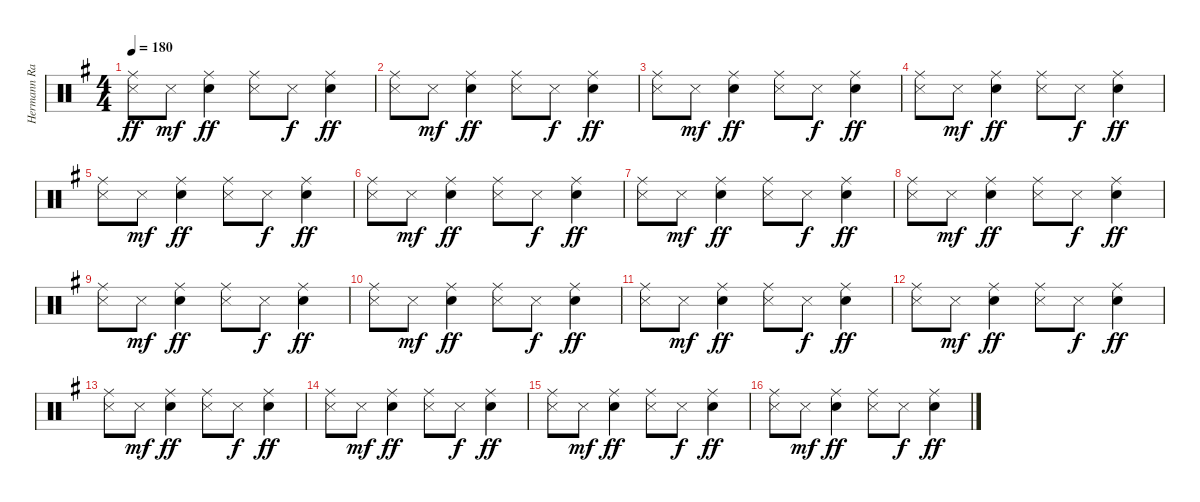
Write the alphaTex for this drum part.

\track ("Hermann Rarebel" "Hermann Ra") {instrument percussion}
\staff {score}
\articulation defaults
\ts (4 4)
\tempo 180
\clef neutral
\ks eminor
("Metronome (hit)" "Ride (middle)").8{dy ff} "Metronome (hit)".8{dy mf} ("Snare (hit) 2" "Ride (middle)").4{dy ff} ("Metronome (hit)" "Ride (middle)").8 "Metronome (hit)".8{dy f} ("Snare (hit) 2" "Ride (middle)").4{dy ff} |
("Metronome (hit)" "Ride (middle)").8 "Metronome (hit)".8{dy mf} ("Snare (hit) 2" "Ride (middle)").4{dy ff} ("Metronome (hit)" "Ride (middle)").8 "Metronome (hit)".8{dy f} ("Snare (hit) 2" "Ride (middle)").4{dy ff} |
("Metronome (hit)" "Ride (middle)").8 "Metronome (hit)".8{dy mf} ("Snare (hit) 2" "Ride (middle)").4{dy ff} ("Metronome (hit)" "Ride (middle)").8 "Metronome (hit)".8{dy f} ("Snare (hit) 2" "Ride (middle)").4{dy ff} |
("Metronome (hit)" "Ride (middle)").8 "Metronome (hit)".8{dy mf} ("Snare (hit) 2" "Ride (middle)").4{dy ff} ("Metronome (hit)" "Ride (middle)").8 "Metronome (hit)".8{dy f} ("Snare (hit) 2" "Ride (middle)").4{dy ff} |
("Metronome (hit)" "Ride (middle)").8 "Metronome (hit)".8{dy mf} ("Snare (hit) 2" "Ride (middle)").4{dy ff} ("Metronome (hit)" "Ride (middle)").8 "Metronome (hit)".8{dy f} ("Snare (hit) 2" "Ride (middle)").4{dy ff} |
("Metronome (hit)" "Ride (middle)").8 "Metronome (hit)".8{dy mf} ("Snare (hit) 2" "Ride (middle)").4{dy ff} ("Metronome (hit)" "Ride (middle)").8 "Metronome (hit)".8{dy f} ("Snare (hit) 2" "Ride (middle)").4{dy ff} |
("Metronome (hit)" "Ride (middle)").8 "Metronome (hit)".8{dy mf} ("Snare (hit) 2" "Ride (middle)").4{dy ff} ("Metronome (hit)" "Ride (middle)").8 "Metronome (hit)".8{dy f} ("Snare (hit) 2" "Ride (middle)").4{dy ff} |
("Metronome (hit)" "Ride (middle)").8 "Metronome (hit)".8{dy mf} ("Snare (hit) 2" "Ride (middle)").4{dy ff} ("Metronome (hit)" "Ride (middle)").8 "Metronome (hit)".8{dy f} ("Snare (hit) 2" "Ride (middle)").4{dy ff} |
("Metronome (hit)" "Ride (middle)").8 "Metronome (hit)".8{dy mf} ("Snare (hit) 2" "Ride (middle)").4{dy ff} ("Metronome (hit)" "Ride (middle)").8 "Metronome (hit)".8{dy f} ("Snare (hit) 2" "Ride (middle)").4{dy ff} |
("Metronome (hit)" "Ride (middle)").8 "Metronome (hit)".8{dy mf} ("Snare (hit) 2" "Ride (middle)").4{dy ff} ("Metronome (hit)" "Ride (middle)").8 "Metronome (hit)".8{dy f} ("Snare (hit) 2" "Ride (middle)").4{dy ff} |
("Metronome (hit)" "Ride (middle)").8 "Metronome (hit)".8{dy mf} ("Snare (hit) 2" "Ride (middle)").4{dy ff} ("Metronome (hit)" "Ride (middle)").8 "Metronome (hit)".8{dy f} ("Snare (hit) 2" "Ride (middle)").4{dy ff} |
("Metronome (hit)" "Ride (middle)").8 "Metronome (hit)".8{dy mf} ("Snare (hit) 2" "Ride (middle)").4{dy ff} ("Metronome (hit)" "Ride (middle)").8 "Metronome (hit)".8{dy f} ("Snare (hit) 2" "Ride (middle)").4{dy ff} |
("Metronome (hit)" "Ride (middle)").8 "Metronome (hit)".8{dy mf} ("Snare (hit) 2" "Ride (middle)").4{dy ff} ("Metronome (hit)" "Ride (middle)").8 "Metronome (hit)".8{dy f} ("Snare (hit) 2" "Ride (middle)").4{dy ff} |
("Metronome (hit)" "Ride (middle)").8 "Metronome (hit)".8{dy mf} ("Snare (hit) 2" "Ride (middle)").4{dy ff} ("Metronome (hit)" "Ride (middle)").8 "Metronome (hit)".8{dy f} ("Snare (hit) 2" "Ride (middle)").4{dy ff} |
("Metronome (hit)" "Ride (middle)").8 "Metronome (hit)".8{dy mf} ("Snare (hit) 2" "Ride (middle)").4{dy ff} ("Metronome (hit)" "Ride (middle)").8 "Metronome (hit)".8{dy f} ("Snare (hit) 2" "Ride (middle)").4{dy ff} |
("Metronome (hit)" "Ride (middle)").8 "Metronome (hit)".8{dy mf} ("Snare (hit) 2" "Ride (middle)").4{dy ff} ("Metronome (hit)" "Ride (middle)").8 "Metronome (hit)".8{dy f} ("Snare (hit) 2" "Ride (middle)").4{dy ff}
